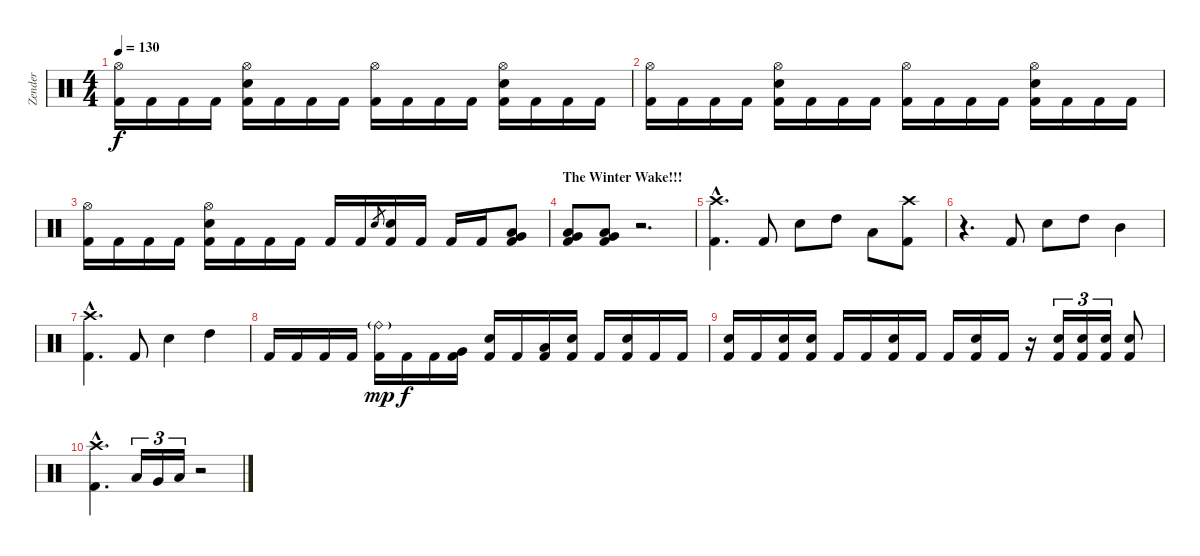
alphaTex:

\track ("Zender" "Zender") {instrument percussion}
\staff {score}
\articulation defaults
\ts (4 4)
\tempo 130
\clef neutral
\ks c
("Hi-Hat (open)" "Kick (hit) 2").16{dy f} "Kick (hit) 2".16 "Kick (hit) 2".16 "Kick (hit) 2".16 ("Electric Snare (hit)" "Hi-Hat (open)" "Kick (hit) 2").16 "Kick (hit) 2".16 "Kick (hit) 2".16 "Kick (hit) 2".16 ("Hi-Hat (open)" "Kick (hit) 2").16 "Kick (hit) 2".16 "Kick (hit) 2".16 "Kick (hit) 2".16 ("Electric Snare (hit)" "Hi-Hat (open)" "Kick (hit) 2").16 "Kick (hit) 2".16 "Kick (hit) 2".16 "Kick (hit) 2".16 |
("Hi-Hat (open)" "Kick (hit) 2").16 "Kick (hit) 2".16 "Kick (hit) 2".16 "Kick (hit) 2".16 ("Electric Snare (hit)" "Hi-Hat (open)" "Kick (hit) 2").16 "Kick (hit) 2".16 "Kick (hit) 2".16 "Kick (hit) 2".16 ("Hi-Hat (open)" "Kick (hit) 2").16 "Kick (hit) 2".16 "Kick (hit) 2".16 "Kick (hit) 2".16 ("Electric Snare (hit)" "Hi-Hat (open)" "Kick (hit) 2").16 "Kick (hit) 2".16 "Kick (hit) 2".16 "Kick (hit) 2".16 |
("Hi-Hat (open)" "Kick (hit) 2").16 "Kick (hit) 2".16 "Kick (hit) 2".16 "Kick (hit) 2".16 ("Electric Snare (hit)" "Hi-Hat (open)" "Kick (hit) 2").16 "Kick (hit) 2".16 "Kick (hit) 2".16 "Kick (hit) 2".16 "Kick (hit) 2".16 "Kick (hit) 2".16 "Electric Snare (hit)".8{gr} ("Electric Snare (hit)" "Kick (hit) 2").16 "Kick (hit) 2".16 "Kick (hit) 2".16 "Kick (hit) 2".16 ("Low Tom (hit)" "Very Low Tom (hit)" "Kick (hit) 2").8 |
\section ("" "The Winter Wake!!!")
("Very Low Tom (hit)" "Low Floor Tom (hit)" "Kick (hit) 2").8 ("Very Low Tom (hit)" "Low Floor Tom (hit)" "Kick (hit) 2").8 r.2{d} |
("Crash high (hit)"{hac} "Kick (hit) 2"{hac}).4{d} "Kick (hit) 2".8 "Electric Snare (hit)".8 "High Tom (hit)".8 "Low Tom (hit)".8 ("Crash high (hit)" "Kick (hit) 2").8 |
r.4{d} "Kick (hit) 2".8 "Electric Snare (hit)".8 "High Tom (hit)".8 "Mid Tom (hit)".4 |
("Crash high (hit)"{hac} "Kick (hit) 2"{hac}).4{d} "Kick (hit) 2".8 "Electric Snare (hit)".4 "High Tom (hit)".4 |
"Kick (hit) 2".16 "Kick (hit) 2".16 "Kick (hit) 2".16 "Kick (hit) 2".16 ("Ride (bell)"{g} "Kick (hit) 2").16{dy mp} "Kick (hit) 2".16{dy f} "Kick (hit) 2".16 ("Very Low Tom (hit)" "Kick (hit) 2").16 ("Electric Snare (hit)" "Kick (hit) 2").16 "Kick (hit) 2".16 ("Low Tom (hit)" "Kick (hit) 2").16 ("Electric Snare (hit)" "Kick (hit) 2").16 "Kick (hit) 2".16 ("Electric Snare (hit)" "Kick (hit) 2").16 "Kick (hit) 2".16 "Kick (hit) 2".16 |
("Electric Snare (hit)" "Kick (hit) 2").16 "Kick (hit) 2".16 ("Electric Snare (hit)" "Kick (hit) 2").16 ("Electric Snare (hit)" "Kick (hit) 2").16 "Kick (hit) 2".16 "Kick (hit) 2".16 ("Electric Snare (hit)" "Kick (hit) 2").16 "Kick (hit) 2".16 "Kick (hit) 2".16 ("Electric Snare (hit)" "Kick (hit) 2").16 "Kick (hit) 2".16 r.16 ("Electric Snare (hit)" "Kick (hit) 2").16{tu (3 2)} ("Electric Snare (hit)" "Kick (hit) 2").16{tu (3 2)} ("Electric Snare (hit)" "Kick (hit) 2").16{tu (3 2)} ("Electric Snare (hit)" "Kick (hit) 2").8 |
("Crash high (hit)"{hac} "Kick (hit) 2"{hac}).4{d} "Low Tom (hit)".16{tu (3 2)} "Very Low Tom (hit)".16{tu (3 2)} "Low Floor Tom (hit)".16{tu (3 2)} r.2
